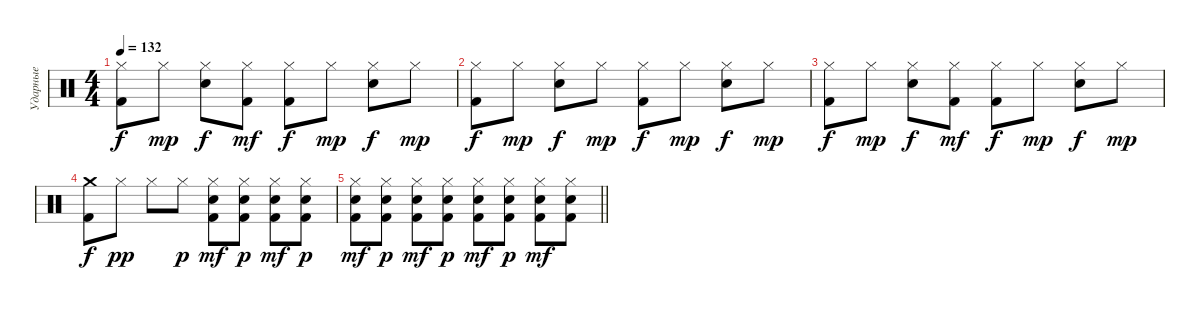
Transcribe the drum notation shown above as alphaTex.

\track ("Ударные" "Ударные") {instrument percussion}
\staff {score}
\articulation defaults
\ts (4 4)
\tempo 132
\clef neutral
\ks c
("Hi-Hat (closed)" "Kick (hit) 2").8{dy f} "Hi-Hat (closed)".8{dy mp} ("Hi-Hat (closed)" "Snare (hit) 2").8{dy f} ("Hi-Hat (closed)" "Kick (hit) 2").8{dy mf} ("Hi-Hat (closed)" "Kick (hit) 2").8{dy f} "Hi-Hat (closed)".8{dy mp} ("Hi-Hat (closed)" "Snare (hit) 2").8{dy f} "Hi-Hat (closed)".8{dy mp} |
("Hi-Hat (closed)" "Kick (hit) 2").8{dy f} "Hi-Hat (closed)".8{dy mp} ("Hi-Hat (closed)" "Snare (hit) 2").8{dy f} "Hi-Hat (closed)".8{dy mp} ("Hi-Hat (closed)" "Kick (hit) 2").8{dy f} "Hi-Hat (closed)".8{dy mp} ("Hi-Hat (closed)" "Snare (hit) 2").8{dy f} "Hi-Hat (closed)".8{dy mp} |
("Hi-Hat (closed)" "Kick (hit) 2").8{dy f} "Hi-Hat (closed)".8{dy mp} ("Hi-Hat (closed)" "Snare (hit) 2").8{dy f} ("Hi-Hat (closed)" "Kick (hit) 2").8{dy mf} ("Hi-Hat (closed)" "Kick (hit) 2").8{dy f} "Hi-Hat (closed)".8{dy mp} ("Hi-Hat (closed)" "Snare (hit) 2").8{dy f} "Hi-Hat (closed)".8{dy mp} |
("Crash medium (hit)" "Kick (hit) 2").8{dy f} "Hi-Hat (closed)".8{dy pp} "Hi-Hat (closed)".8 "Hi-Hat (closed)".8{dy p} ("Snare (hit) 2" "Kick (hit) 2" "Hi-Hat (closed)").8{dy mf} ("Snare (hit) 2" "Kick (hit) 2" "Hi-Hat (closed)").8{dy p} ("Snare (hit) 2" "Kick (hit) 2" "Hi-Hat (closed)").8{dy mf} ("Snare (hit) 2" "Kick (hit) 2" "Hi-Hat (closed)").8{dy p} |
\barLineRight lightlight
("Snare (hit) 2" "Kick (hit) 2" "Hi-Hat (closed)").8{dy mf} ("Snare (hit) 2" "Kick (hit) 2" "Hi-Hat (closed)").8{dy p} ("Snare (hit) 2" "Kick (hit) 2" "Hi-Hat (closed)").8{dy mf} ("Snare (hit) 2" "Kick (hit) 2" "Hi-Hat (closed)").8{dy p} ("Snare (hit) 2" "Kick (hit) 2" "Hi-Hat (closed)").8{dy mf} ("Snare (hit) 2" "Kick (hit) 2" "Hi-Hat (closed)").8{dy p} ("Snare (hit) 2" "Kick (hit) 2" "Hi-Hat (closed)").8{dy mf} ("Snare (hit) 2" "Kick (hit) 2" "Hi-Hat (closed)").8
